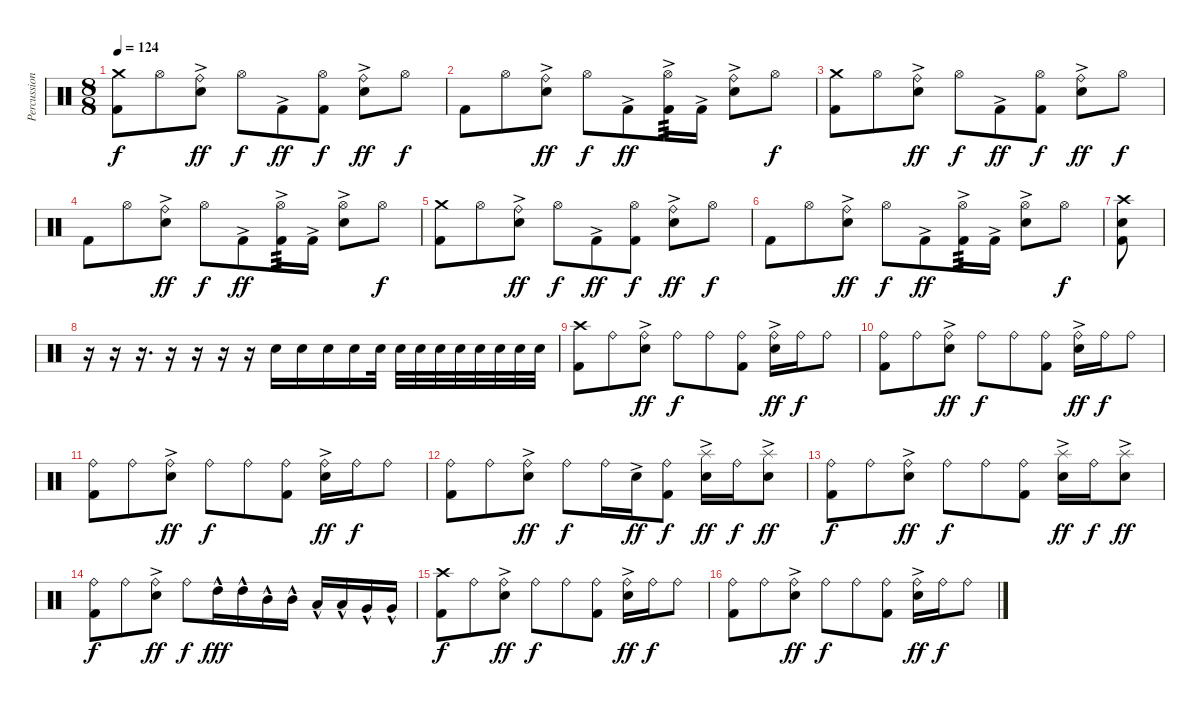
\track ("Percussion" "Percussion") {instrument percussion}
\staff {score}
\articulation defaults
\ts (8 8)
\tempo 124
\clef neutral
\ks c
("Crash medium (hit)" "Kick (hit) 2").8{dy f} "Hi-Hat (open)".8 ("Ride (bell)" "Electric Snare (hit)"{ac}).8{dy ff} "Hi-Hat (open)".8{dy f} "Kick (hit) 2"{ac}.8{dy ff} ("Hi-Hat (open)" "Kick (hit) 2").8{dy f} ("Ride (bell)" "Electric Snare (hit)"{ac}).8{dy ff} "Hi-Hat (open)".8{dy f} |
"Kick (hit) 2".8 "Hi-Hat (open)".8 ("Ride (bell)" "Electric Snare (hit)"{ac}).8{dy ff} "Hi-Hat (open)".8{dy f} "Kick (hit) 2"{ac}.8{dy ff} ("Hi-Hat (open)" "Kick (hit) 2"{ac}).16{tp 3} "Kick (hit) 2"{ac}.16 ("Ride (bell)" "Electric Snare (hit)"{ac}).8 "Hi-Hat (open)".8{dy f} |
("Crash medium (hit)" "Kick (hit) 2").8 "Hi-Hat (open)".8 ("Ride (bell)" "Electric Snare (hit)"{ac}).8{dy ff} "Hi-Hat (open)".8{dy f} "Kick (hit) 2"{ac}.8{dy ff} ("Hi-Hat (open)" "Kick (hit) 2").8{dy f} ("Ride (bell)" "Electric Snare (hit)"{ac}).8{dy ff} "Hi-Hat (open)".8{dy f} |
"Kick (hit) 2".8 "Hi-Hat (open)".8 ("Ride (bell)" "Electric Snare (hit)"{ac}).8{dy ff} "Hi-Hat (open)".8{dy f} "Kick (hit) 2"{ac}.8{dy ff} ("Hi-Hat (open)" "Kick (hit) 2"{ac}).16{tp 3} "Kick (hit) 2"{ac}.16 ("Hi-Hat (open)" "Electric Snare (hit)"{ac}).8 "Hi-Hat (open)".8{dy f} |
("Crash medium (hit)" "Kick (hit) 2").8 "Hi-Hat (open)".8 ("Ride (bell)" "Electric Snare (hit)"{ac}).8{dy ff} "Hi-Hat (open)".8{dy f} "Kick (hit) 2"{ac}.8{dy ff} ("Hi-Hat (open)" "Kick (hit) 2").8{dy f} ("Ride (bell)" "Electric Snare (hit)"{ac}).8{dy ff} "Hi-Hat (open)".8{dy f} |
"Kick (hit) 2".8 "Hi-Hat (open)".8 ("Ride (bell)" "Electric Snare (hit)"{ac}).8{dy ff} "Hi-Hat (open)".8{dy f} "Kick (hit) 2"{ac}.8{dy ff} ("Hi-Hat (open)" "Kick (hit) 2"{ac}).16{tp 3} "Kick (hit) 2"{ac}.16 ("Hi-Hat (open)" "Electric Snare (hit)"{ac}).8 "Hi-Hat (open)".8{dy f} |
("Kick (hit) 2" "Electric Snare (hit)" "Crash high (hit)").8 |
r.16 r.16 r.16{d} r.16 r.16 r.16 r.16 "Electric Snare (hit)".16 "Electric Snare (hit)".16 "Electric Snare (hit)".16 "Electric Snare (hit)".16 "Electric Snare (hit)".32 "Electric Snare (hit)".32 "Electric Snare (hit)".32 "Electric Snare (hit)".32 "Electric Snare (hit)".32 "Electric Snare (hit)".32 "Electric Snare (hit)".32 "Electric Snare (hit)".32 "Electric Snare (hit)".32 |
("Crash high (hit)" "Kick (hit) 2").8 "Ride (bell)".8 ("Ride (bell)" "Electric Snare (hit)"{ac}).8{dy ff} "Ride (bell)".8{dy f} "Ride (bell)".8 ("Ride (bell)" "Kick (hit) 2").8 ("Ride (bell)" "Electric Snare (hit)"{ac}).16{dy ff} "Ride (bell)".16{dy f} "Ride (bell)".8 |
("Ride (bell)" "Kick (hit) 2").8 "Ride (bell)".8 ("Ride (bell)" "Electric Snare (hit)"{ac}).8{dy ff} "Ride (bell)".8{dy f} "Ride (bell)".8 ("Ride (bell)" "Kick (hit) 2").8 ("Ride (bell)" "Electric Snare (hit)"{ac}).16{dy ff} "Ride (bell)".16{dy f} "Ride (bell)".8 |
("Ride (bell)" "Kick (hit) 2").8 "Ride (bell)".8 ("Ride (bell)" "Electric Snare (hit)"{ac}).8{dy ff} "Ride (bell)".8{dy f} "Ride (bell)".8 ("Ride (bell)" "Kick (hit) 2").8 ("Ride (bell)" "Electric Snare (hit)"{ac}).16{dy ff} "Ride (bell)".16{dy f} "Ride (bell)".8 |
("Ride (bell)" "Kick (hit) 2").8 "Ride (bell)".8 ("Ride (bell)" "Electric Snare (hit)"{ac}).8{dy ff} "Ride (bell)".8{dy f} "Ride (bell)".16 "Electric Snare (hit)"{ac}.16{dy ff} ("Ride (bell)" "Kick (hit) 2").8{dy f} ("Splash (hit)" "Electric Snare (hit)"{ac}).16{dy ff} "Ride (bell)".16{dy f} ("Splash (hit)" "Electric Snare (hit)"{ac}).8{dy ff} |
("Ride (bell)" "Kick (hit) 2").8{dy f} "Ride (bell)".8 ("Ride (bell)" "Electric Snare (hit)"{ac}).8{dy ff} "Ride (bell)".8{dy f} "Ride (bell)".8 ("Ride (bell)" "Kick (hit) 2").8 ("Splash (hit)" "Electric Snare (hit)"{ac}).16{dy ff} "Ride (bell)".16{dy f} ("Splash (hit)" "Electric Snare (hit)"{ac}).8{dy ff} |
("Ride (bell)" "Kick (hit) 2").8{dy f} "Ride (bell)".8 ("Ride (bell)" "Electric Snare (hit)"{ac}).8{dy ff} "Ride (bell)".8{dy f} "High Tom (hit)"{hac}.16{dy fff} "High Tom (hit)"{hac}.16 "Mid Tom (hit)"{hac}.16 "Mid Tom (hit)"{hac}.16 "Low Tom (hit)"{hac}.16 "Low Tom (hit)"{hac}.16 "Very Low Tom (hit)"{hac}.16 "Very Low Tom (hit)"{hac}.16 |
("Crash high (hit)" "Kick (hit) 2").8{dy f} "Ride (bell)".8 ("Ride (bell)" "Electric Snare (hit)"{ac}).8{dy ff} "Ride (bell)".8{dy f} "Ride (bell)".8 ("Ride (bell)" "Kick (hit) 2").8 ("Ride (bell)" "Electric Snare (hit)"{ac}).16{dy ff} "Ride (bell)".16{dy f} "Ride (bell)".8 |
("Ride (bell)" "Kick (hit) 2").8 "Ride (bell)".8 ("Ride (bell)" "Electric Snare (hit)"{ac}).8{dy ff} "Ride (bell)".8{dy f} "Ride (bell)".8 ("Ride (bell)" "Kick (hit) 2").8 ("Ride (bell)" "Electric Snare (hit)"{ac}).16{dy ff} "Ride (bell)".16{dy f} "Ride (bell)".8
